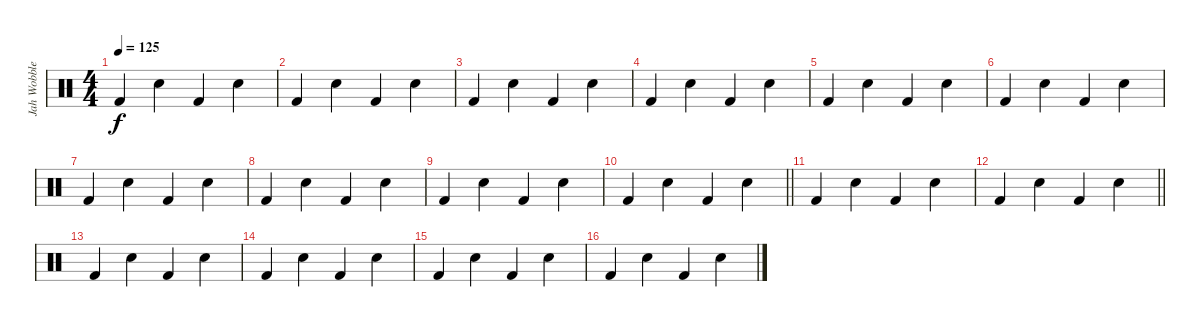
\track ("Jah Wobble  (drums)" "Jah Wobble") {instrument percussion}
\staff {score}
\articulation defaults
\ts (4 4)
\tempo 125
\clef neutral
\ks c "Kick (hit) 2".4{dy f} "Electric Snare (hit)".4 "Kick (hit) 2".4 "Electric Snare (hit)".4
|
"Kick (hit) 2".4 "Electric Snare (hit)".4 "Kick (hit) 2".4 "Electric Snare (hit)".4 |
"Kick (hit) 2".4 "Electric Snare (hit)".4 "Kick (hit) 2".4 "Electric Snare (hit)".4 |
"Kick (hit) 2".4 "Electric Snare (hit)".4 "Kick (hit) 2".4 "Electric Snare (hit)".4 |
"Kick (hit) 2".4 "Electric Snare (hit)".4 "Kick (hit) 2".4 "Electric Snare (hit)".4 |
"Kick (hit) 2".4 "Electric Snare (hit)".4 "Kick (hit) 2".4 "Electric Snare (hit)".4 |
"Kick (hit) 2".4 "Electric Snare (hit)".4 "Kick (hit) 2".4 "Electric Snare (hit)".4 |
"Kick (hit) 2".4 "Electric Snare (hit)".4 "Kick (hit) 2".4 "Electric Snare (hit)".4 |
"Kick (hit) 2".4 "Electric Snare (hit)".4 "Kick (hit) 2".4 "Electric Snare (hit)".4 |
\barLineRight lightlight "Kick (hit) 2".4 "Electric Snare (hit)".4 "Kick (hit) 2".4 "Electric Snare (hit)".4
|
"Kick (hit) 2".4 "Electric Snare (hit)".4 "Kick (hit) 2".4 "Electric Snare (hit)".4 |
\barLineRight lightlight "Kick (hit) 2".4 "Electric Snare (hit)".4 "Kick (hit) 2".4 "Electric Snare (hit)".4
|
"Kick (hit) 2".4 "Electric Snare (hit)".4 "Kick (hit) 2".4 "Electric Snare (hit)".4 |
"Kick (hit) 2".4 "Electric Snare (hit)".4 "Kick (hit) 2".4 "Electric Snare (hit)".4 |
"Kick (hit) 2".4 "Electric Snare (hit)".4 "Kick (hit) 2".4 "Electric Snare (hit)".4 |
"Kick (hit) 2".4 "Electric Snare (hit)".4 "Kick (hit) 2".4 "Electric Snare (hit)".4
